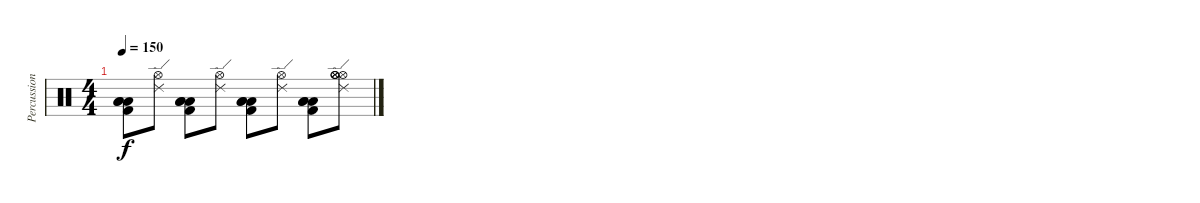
\track ("Percussion" "Percussion") {instrument percussion}
\staff {score}
\articulation defaults
\ts (4 4)
\tempo 150
\clef neutral
\ks c
("Kick (hit) 2" "Low Tom (hit)" "Low Tom (hit)" "Low Tom (hit)").8{dy f} ("Ride (edge) 2" "Hi-Hat (open)").8 ("Kick (hit) 2" "Low Tom (hit)" "Low Tom (hit)" "Low Tom (hit)").8 ("Ride (edge) 2" "Hi-Hat (open)").8 ("Kick (hit) 2" "Low Tom (hit)" "Low Tom (hit)" "Low Tom (hit)").8 ("Ride (edge) 2" "Hi-Hat (open)").8 ("Kick (hit) 2" "Low Tom (hit)" "Low Tom (hit)" "Low Tom (hit)").8 ("Hi-Hat (open)" "Hi-Hat (open)" "Hi-Hat (open)" "Ride (edge) 2" "Hi-Hat (open)").8
